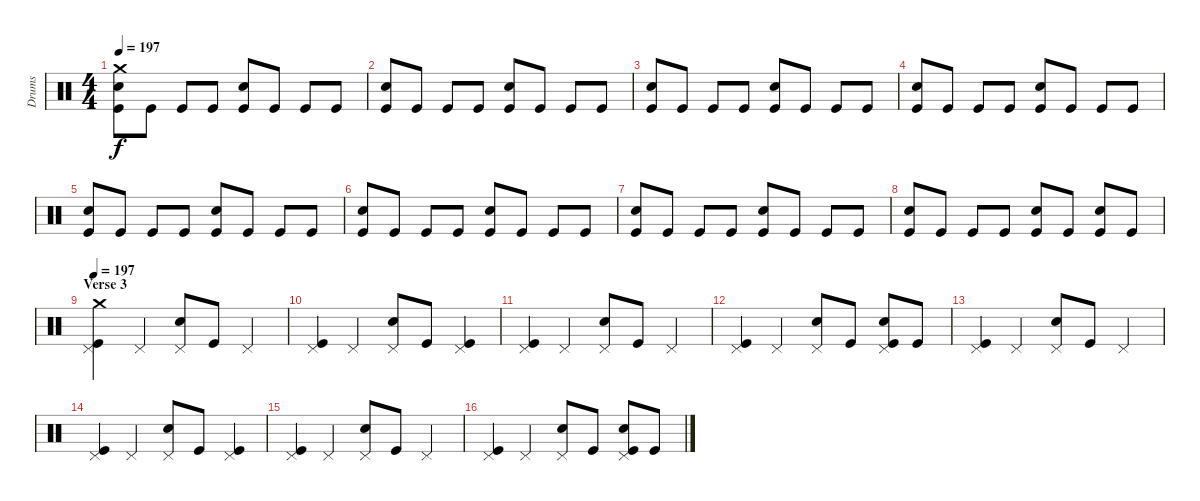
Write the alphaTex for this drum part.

\track ("Drums" "Drums") {instrument percussion}
\staff {score}
\articulation defaults
\ts (4 4)
\tempo 197
\clef neutral
\ks c
("Crash medium (hit)" "Snare (hit) 2" "Kick (hit)").8{dy f} "Kick (hit)".8 "Kick (hit)".8 "Kick (hit)".8 ("Snare (hit) 2" "Kick (hit)").8 "Kick (hit)".8 "Kick (hit)".8 "Kick (hit)".8 |
("Snare (hit) 2" "Kick (hit)").8 "Kick (hit)".8 "Kick (hit)".8 "Kick (hit)".8 ("Snare (hit) 2" "Kick (hit)").8 "Kick (hit)".8 "Kick (hit)".8 "Kick (hit)".8 |
("Snare (hit) 2" "Kick (hit)").8 "Kick (hit)".8 "Kick (hit)".8 "Kick (hit)".8 ("Snare (hit) 2" "Kick (hit)").8 "Kick (hit)".8 "Kick (hit)".8 "Kick (hit)".8 |
("Snare (hit) 2" "Kick (hit)").8 "Kick (hit)".8 "Kick (hit)".8 "Kick (hit)".8 ("Snare (hit) 2" "Kick (hit)").8 "Kick (hit)".8 "Kick (hit)".8 "Kick (hit)".8 |
("Snare (hit) 2" "Kick (hit)").8 "Kick (hit)".8 "Kick (hit)".8 "Kick (hit)".8 ("Snare (hit) 2" "Kick (hit)").8 "Kick (hit)".8 "Kick (hit)".8 "Kick (hit)".8 |
("Snare (hit) 2" "Kick (hit)").8 "Kick (hit)".8 "Kick (hit)".8 "Kick (hit)".8 ("Snare (hit) 2" "Kick (hit)").8 "Kick (hit)".8 "Kick (hit)".8 "Kick (hit)".8 |
("Snare (hit) 2" "Kick (hit)").8 "Kick (hit)".8 "Kick (hit)".8 "Kick (hit)".8 ("Snare (hit) 2" "Kick (hit)").8 "Kick (hit)".8 "Kick (hit)".8 "Kick (hit)".8 |
("Snare (hit) 2" "Kick (hit)").8 "Kick (hit)".8 "Kick (hit)".8 "Kick (hit)".8 ("Snare (hit) 2" "Kick (hit)").8 "Kick (hit)".8 ("Snare (hit) 2" "Kick (hit)").8 "Kick (hit)".8 |
\section ("" "Verse 3")
\tempo 197
("Crash medium (hit)" "Pedal Hi-Hat (hit)" "Kick (hit)").4{volume 16} "Pedal Hi-Hat (hit)".4 ("Pedal Hi-Hat (hit)" "Snare (hit) 2").8 "Kick (hit)".8 "Pedal Hi-Hat (hit)".4 |
("Pedal Hi-Hat (hit)" "Kick (hit)").4 "Pedal Hi-Hat (hit)".4 ("Pedal Hi-Hat (hit)" "Snare (hit) 2").8 "Kick (hit)".8 ("Pedal Hi-Hat (hit)" "Kick (hit)").4 |
("Pedal Hi-Hat (hit)" "Kick (hit)").4 "Pedal Hi-Hat (hit)".4 ("Pedal Hi-Hat (hit)" "Snare (hit) 2").8 "Kick (hit)".8 "Pedal Hi-Hat (hit)".4 |
("Pedal Hi-Hat (hit)" "Kick (hit)").4 "Pedal Hi-Hat (hit)".4 ("Pedal Hi-Hat (hit)" "Snare (hit) 2").8 "Kick (hit)".8 ("Pedal Hi-Hat (hit)" "Snare (hit) 2" "Kick (hit)").8 "Kick (hit)".8 |
("Pedal Hi-Hat (hit)" "Kick (hit)").4 "Pedal Hi-Hat (hit)".4 ("Pedal Hi-Hat (hit)" "Snare (hit) 2").8 "Kick (hit)".8 "Pedal Hi-Hat (hit)".4 |
("Pedal Hi-Hat (hit)" "Kick (hit)").4 "Pedal Hi-Hat (hit)".4 ("Pedal Hi-Hat (hit)" "Snare (hit) 2").8 "Kick (hit)".8 ("Pedal Hi-Hat (hit)" "Kick (hit)").4 |
("Pedal Hi-Hat (hit)" "Kick (hit)").4 "Pedal Hi-Hat (hit)".4 ("Pedal Hi-Hat (hit)" "Snare (hit) 2").8 "Kick (hit)".8 "Pedal Hi-Hat (hit)".4 |
("Pedal Hi-Hat (hit)" "Kick (hit)").4 "Pedal Hi-Hat (hit)".4 ("Pedal Hi-Hat (hit)" "Snare (hit) 2").8 "Kick (hit)".8 ("Pedal Hi-Hat (hit)" "Snare (hit) 2" "Kick (hit)").8 "Kick (hit)".8
